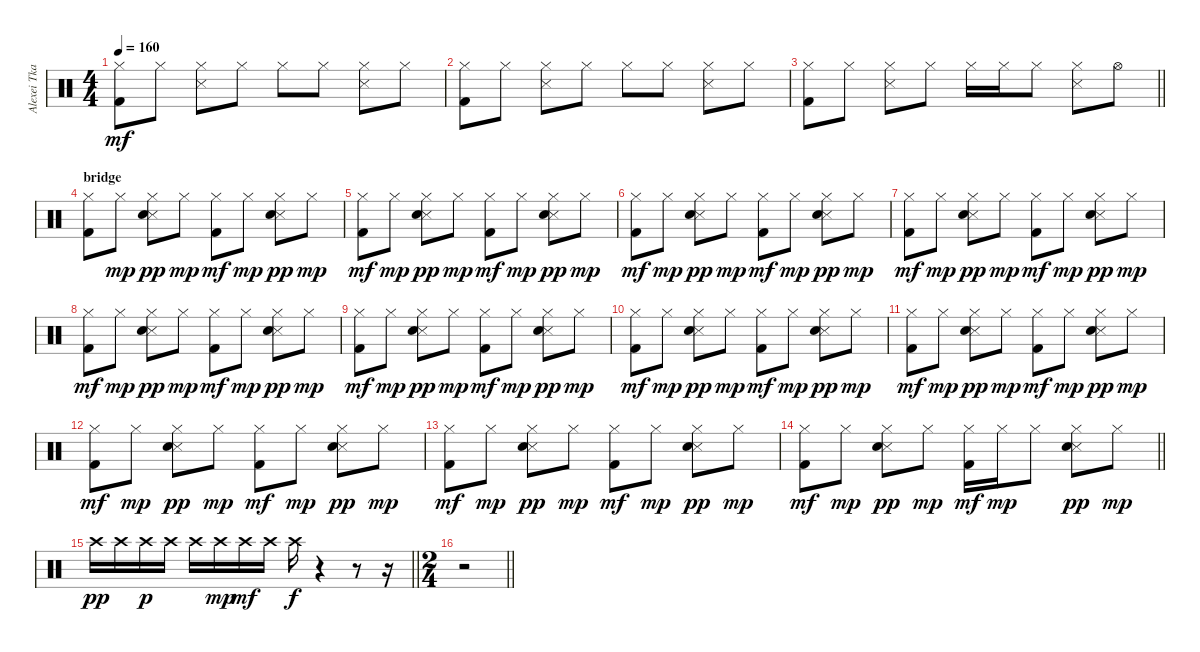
\track ("Alexei Tkachevskiy " "Alexei Tka") {instrument percussion}
\staff {score}
\articulation defaults
\ts (4 4)
\tempo 160
\clef neutral
\ks c
("Hi-Hat (closed)" "Kick (hit) 2").8{dy mf} "Hi-Hat (closed)".8 ("Hi-Hat (closed)" "Snare (side stick) 3").8 "Hi-Hat (closed)".8 "Hi-Hat (closed)".8 "Hi-Hat (closed)".8 ("Hi-Hat (closed)" "Snare (side stick) 3").8 "Hi-Hat (closed)".8 |
("Hi-Hat (closed)" "Kick (hit) 2").8 "Hi-Hat (closed)".8 ("Hi-Hat (closed)" "Snare (side stick) 3").8 "Hi-Hat (closed)".8 "Hi-Hat (closed)".8 "Hi-Hat (closed)".8 ("Hi-Hat (closed)" "Snare (side stick) 3").8 "Hi-Hat (closed)".8 |
\barLineRight lightlight
("Hi-Hat (closed)" "Kick (hit) 2").8 "Hi-Hat (closed)".8 ("Hi-Hat (closed)" "Snare (side stick) 3").8 "Hi-Hat (closed)".8 "Hi-Hat (closed)".16 "Hi-Hat (closed)".16 "Hi-Hat (closed)".8 ("Hi-Hat (closed)" "Snare (side stick) 3").8 "Hi-Hat (open)".8 |
\section ("" "bridge")
("Hi-Hat (closed)" "Kick (hit) 2").8 "Hi-Hat (closed)".8{dy mp} ("Hi-Hat (closed)" "Snare (side stick) 3" "Snare (hit) 2").8{dy pp} "Hi-Hat (closed)".8{dy mp} ("Hi-Hat (closed)" "Kick (hit) 2").8{dy mf} "Hi-Hat (closed)".8{dy mp} ("Hi-Hat (closed)" "Snare (side stick) 3" "Snare (hit) 2").8{dy pp} "Hi-Hat (closed)".8{dy mp} |
("Hi-Hat (closed)" "Kick (hit) 2").8{dy mf} "Hi-Hat (closed)".8{dy mp} ("Hi-Hat (closed)" "Snare (side stick) 3" "Snare (hit) 2").8{dy pp} "Hi-Hat (closed)".8{dy mp} ("Hi-Hat (closed)" "Kick (hit) 2").8{dy mf} "Hi-Hat (closed)".8{dy mp} ("Hi-Hat (closed)" "Snare (side stick) 3" "Snare (hit) 2").8{dy pp} "Hi-Hat (closed)".8{dy mp} |
("Hi-Hat (closed)" "Kick (hit) 2").8{dy mf} "Hi-Hat (closed)".8{dy mp} ("Hi-Hat (closed)" "Snare (side stick) 3" "Snare (hit) 2").8{dy pp} "Hi-Hat (closed)".8{dy mp} ("Hi-Hat (closed)" "Kick (hit) 2").8{dy mf} "Hi-Hat (closed)".8{dy mp} ("Hi-Hat (closed)" "Snare (side stick) 3" "Snare (hit) 2").8{dy pp} "Hi-Hat (closed)".8{dy mp} |
("Hi-Hat (closed)" "Kick (hit) 2").8{dy mf} "Hi-Hat (closed)".8{dy mp} ("Hi-Hat (closed)" "Snare (side stick) 3" "Snare (hit) 2").8{dy pp} "Hi-Hat (closed)".8{dy mp} ("Hi-Hat (closed)" "Kick (hit) 2").8{dy mf} "Hi-Hat (closed)".8{dy mp} ("Hi-Hat (closed)" "Snare (side stick) 3" "Snare (hit) 2").8{dy pp} "Hi-Hat (closed)".8{dy mp} |
("Hi-Hat (closed)" "Kick (hit) 2").8{dy mf} "Hi-Hat (closed)".8{dy mp} ("Hi-Hat (closed)" "Snare (side stick) 3" "Snare (hit) 2").8{dy pp} "Hi-Hat (closed)".8{dy mp} ("Hi-Hat (closed)" "Kick (hit) 2").8{dy mf} "Hi-Hat (closed)".8{dy mp} ("Hi-Hat (closed)" "Snare (side stick) 3" "Snare (hit) 2").8{dy pp} "Hi-Hat (closed)".8{dy mp} |
("Hi-Hat (closed)" "Kick (hit) 2").8{dy mf} "Hi-Hat (closed)".8{dy mp} ("Hi-Hat (closed)" "Snare (side stick) 3" "Snare (hit) 2").8{dy pp} "Hi-Hat (closed)".8{dy mp} ("Hi-Hat (closed)" "Kick (hit) 2").8{dy mf} "Hi-Hat (closed)".8{dy mp} ("Hi-Hat (closed)" "Snare (side stick) 3" "Snare (hit) 2").8{dy pp} "Hi-Hat (closed)".8{dy mp} |
("Hi-Hat (closed)" "Kick (hit) 2").8{dy mf} "Hi-Hat (closed)".8{dy mp} ("Hi-Hat (closed)" "Snare (side stick) 3" "Snare (hit) 2").8{dy pp} "Hi-Hat (closed)".8{dy mp} ("Hi-Hat (closed)" "Kick (hit) 2").8{dy mf} "Hi-Hat (closed)".8{dy mp} ("Hi-Hat (closed)" "Snare (side stick) 3" "Snare (hit) 2").8{dy pp} "Hi-Hat (closed)".8{dy mp} |
("Hi-Hat (closed)" "Kick (hit) 2").8{dy mf} "Hi-Hat (closed)".8{dy mp} ("Hi-Hat (closed)" "Snare (side stick) 3" "Snare (hit) 2").8{dy pp} "Hi-Hat (closed)".8{dy mp} ("Hi-Hat (closed)" "Kick (hit) 2").8{dy mf} "Hi-Hat (closed)".8{dy mp} ("Hi-Hat (closed)" "Snare (side stick) 3" "Snare (hit) 2").8{dy pp} "Hi-Hat (closed)".8{dy mp} |
("Hi-Hat (closed)" "Kick (hit) 2").8{dy mf} "Hi-Hat (closed)".8{dy mp} ("Hi-Hat (closed)" "Snare (side stick) 3" "Snare (hit) 2").8{dy pp} "Hi-Hat (closed)".8{dy mp} ("Hi-Hat (closed)" "Kick (hit) 2").8{dy mf} "Hi-Hat (closed)".8{dy mp} ("Hi-Hat (closed)" "Snare (side stick) 3" "Snare (hit) 2").8{dy pp} "Hi-Hat (closed)".8{dy mp} |
("Hi-Hat (closed)" "Kick (hit) 2").8{dy mf} "Hi-Hat (closed)".8{dy mp} ("Hi-Hat (closed)" "Snare (side stick) 3" "Snare (hit) 2").8{dy pp} "Hi-Hat (closed)".8{dy mp} ("Hi-Hat (closed)" "Kick (hit) 2").8{dy mf} "Hi-Hat (closed)".8{dy mp} ("Hi-Hat (closed)" "Snare (side stick) 3" "Snare (hit) 2").8{dy pp} "Hi-Hat (closed)".8{dy mp} |
\barLineRight lightlight
("Hi-Hat (closed)" "Kick (hit) 2").8{dy mf} "Hi-Hat (closed)".8{dy mp} ("Hi-Hat (closed)" "Snare (side stick) 3" "Snare (hit) 2").8{dy pp} "Hi-Hat (closed)".8{dy mp} ("Hi-Hat (closed)" "Kick (hit) 2").16{dy mf} "Hi-Hat (closed)".16{dy mp} "Hi-Hat (closed)".8 ("Hi-Hat (closed)" "Snare (side stick) 3" "Snare (hit) 2").8{dy pp} "Hi-Hat (closed)".8{dy mp} |
\barLineRight lightlight "Crash high (hit)".16{dy pp} "Crash high (hit)".16 "Crash high (hit)".16{dy p} "Crash high (hit)".16 "Crash high (hit)".16 "Crash high (hit)".16{dy mp} "Crash high (hit)".16{dy mf} "Crash high (hit)".16 "Crash high (hit)".16{dy f}
r.4 r.8 r.16 |
\ts (2 4)
\barLineRight lightlight
r.2
